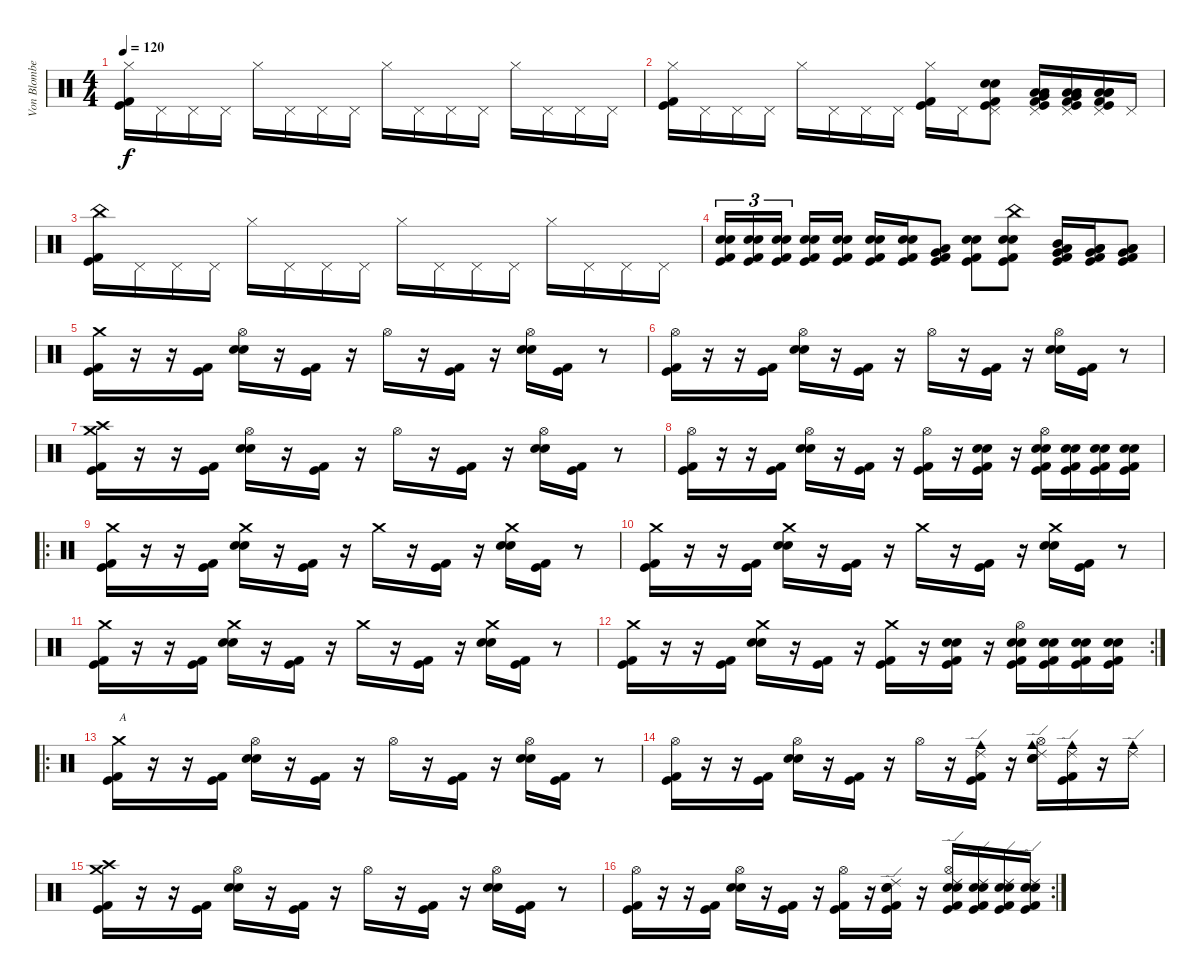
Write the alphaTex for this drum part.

\track ("Von Blomberg" "Von Blombe") {instrument percussion}
\staff {score}
\articulation defaults
\ts (4 4)
\tempo 120
\clef neutral
\ks c
("Hi-Hat (closed)" "Kick (hit)" "Kick (hit) 2").16{dy f} "Pedal Hi-Hat (hit)".16 "Pedal Hi-Hat (hit)".16 "Pedal Hi-Hat (hit)".16 "Hi-Hat (closed)".16 "Pedal Hi-Hat (hit)".16 "Pedal Hi-Hat (hit)".16 "Pedal Hi-Hat (hit)".16 "Hi-Hat (closed)".16 "Pedal Hi-Hat (hit)".16 "Pedal Hi-Hat (hit)".16 "Pedal Hi-Hat (hit)".16 "Hi-Hat (closed)".16 "Pedal Hi-Hat (hit)".16 "Pedal Hi-Hat (hit)".16 "Pedal Hi-Hat (hit)".16 |
("Hi-Hat (closed)" "Kick (hit)" "Kick (hit) 2").16 "Pedal Hi-Hat (hit)".16 "Pedal Hi-Hat (hit)".16 "Pedal Hi-Hat (hit)".16 "Hi-Hat (closed)".16 "Pedal Hi-Hat (hit)".16 "Pedal Hi-Hat (hit)".16 "Pedal Hi-Hat (hit)".16 ("Hi-Hat (closed)" "Kick (hit)" "Kick (hit) 2").16 "Pedal Hi-Hat (hit)".16 ("Pedal Hi-Hat (hit)" "Electric Snare (hit)" "Snare (hit) 2" "Kick (hit)" "Kick (hit) 2").8 ("Pedal Hi-Hat (hit)" "Low Tom (hit)" "Very Low Tom (hit)" "Low Floor Tom (hit)" "Kick (hit)" "Kick (hit) 2").16 ("Pedal Hi-Hat (hit)" "Very Low Tom (hit)" "Low Floor Tom (hit)" "Low Floor Tom (hit)" "Kick (hit)" "Kick (hit) 2").16 ("Pedal Hi-Hat (hit)" "Low Floor Tom (hit)" "Low Floor Tom (hit)" "Low Floor Tom (hit)" "Kick (hit)" "Kick (hit) 2").16 "Pedal Hi-Hat (hit)".16 |
("China (hit)" "Kick (hit)" "Kick (hit) 2").16 "Pedal Hi-Hat (hit)".16 "Pedal Hi-Hat (hit)".16 "Pedal Hi-Hat (hit)".16 "Hi-Hat (closed)".16 "Pedal Hi-Hat (hit)".16 "Pedal Hi-Hat (hit)".16 "Pedal Hi-Hat (hit)".16 "Hi-Hat (closed)".16 "Pedal Hi-Hat (hit)".16 "Pedal Hi-Hat (hit)".16 "Pedal Hi-Hat (hit)".16 "Hi-Hat (closed)".16 "Pedal Hi-Hat (hit)".16 "Pedal Hi-Hat (hit)".16 "Pedal Hi-Hat (hit)".16 |
("Snare (hit) 2" "Electric Snare (hit)" "Kick (hit)" "Kick (hit) 2").16{tu (3 2)} ("Snare (hit) 2" "Electric Snare (hit)" "Kick (hit)" "Kick (hit) 2").16{tu (3 2)} ("Snare (hit) 2" "Electric Snare (hit)" "Kick (hit)" "Kick (hit) 2").16{tu (3 2)} ("Snare (hit) 2" "Electric Snare (hit)" "Kick (hit)" "Kick (hit) 2").16 ("Snare (hit) 2" "Electric Snare (hit)" "Kick (hit)" "Kick (hit) 2").16 ("Snare (hit) 2" "Electric Snare (hit)" "Kick (hit)" "Kick (hit) 2").16 ("Snare (hit) 2" "Electric Snare (hit)" "Kick (hit)" "Kick (hit) 2").16 ("Low Tom (hit)" "Very Low Tom (hit)" "Kick (hit)" "Kick (hit) 2").8 ("Snare (hit) 2" "Electric Snare (hit)" "Kick (hit)" "Kick (hit) 2").8 ("China (hit)" "Electric Snare (hit)" "Snare (hit) 2" "Kick (hit)" "Kick (hit) 2").8 ("Kick (hit) 2" "Mid Tom (hit)" "Low Tom (hit)" "Very Low Tom (hit)" "Kick (hit)").16 ("Kick (hit) 2" "Low Tom (hit)" "Very Low Tom (hit)" "Low Floor Tom (hit)" "Kick (hit)").16 ("Kick (hit) 2" "Very Low Tom (hit)" "Low Floor Tom (hit)" "Low Floor Tom (hit)" "Kick (hit)").8 |
("Crash medium (hit)" "Kick (hit) 2" "Kick (hit)").16 r.16 r.16 ("Kick (hit)" "Kick (hit) 2").16 ("Hi-Hat (open)" "Electric Snare (hit)" "Snare (hit) 2").16 r.16 ("Kick (hit)" "Kick (hit) 2").16 r.16 "Hi-Hat (open)".16 r.16 ("Kick (hit)" "Kick (hit) 2").16 r.16 ("Hi-Hat (open)" "Snare (hit) 2" "Electric Snare (hit)").16 ("Kick (hit)" "Kick (hit) 2").16 r.8 |
("Hi-Hat (open)" "Kick (hit) 2" "Kick (hit)").16 r.16 r.16 ("Kick (hit)" "Kick (hit) 2").16 ("Hi-Hat (open)" "Electric Snare (hit)" "Snare (hit) 2").16 r.16 ("Kick (hit)" "Kick (hit) 2").16 r.16 "Hi-Hat (open)".16 r.16 ("Kick (hit)" "Kick (hit) 2").16 r.16 ("Hi-Hat (open)" "Snare (hit) 2" "Electric Snare (hit)").16 ("Kick (hit)" "Kick (hit) 2").16 r.8 |
("Crash high (hit)" "Crash medium (hit)" "Kick (hit) 2" "Kick (hit)").16 r.16 r.16 ("Kick (hit)" "Kick (hit) 2").16 ("Hi-Hat (open)" "Electric Snare (hit)" "Snare (hit) 2").16 r.16 ("Kick (hit)" "Kick (hit) 2").16 r.16 "Hi-Hat (open)".16 r.16 ("Kick (hit)" "Kick (hit) 2").16 r.16 ("Hi-Hat (open)" "Snare (hit) 2" "Electric Snare (hit)").16 ("Kick (hit)" "Kick (hit) 2").16 r.8 |
("Hi-Hat (open)" "Kick (hit) 2" "Kick (hit)").16 r.16 r.16 ("Kick (hit)" "Kick (hit) 2").16 ("Hi-Hat (open)" "Electric Snare (hit)" "Snare (hit) 2").16 r.16 ("Kick (hit)" "Kick (hit) 2").16 r.16 ("Hi-Hat (open)" "Kick (hit)" "Kick (hit) 2").16 r.16 ("Snare (hit) 2" "Electric Snare (hit)" "Kick (hit)" "Kick (hit) 2").16 r.16 ("Kick (hit)" "Hi-Hat (open)" "Electric Snare (hit)" "Snare (hit) 2" "Kick (hit) 2").16 ("Snare (hit) 2" "Electric Snare (hit)" "Kick (hit)" "Kick (hit) 2").16 ("Snare (hit) 2" "Electric Snare (hit)" "Kick (hit)" "Kick (hit) 2").16 ("Snare (hit) 2" "Electric Snare (hit)" "Kick (hit)" "Kick (hit) 2").16 |
\ro
("Crash medium (hit)" "Kick (hit) 2" "Kick (hit)").16 r.16 r.16 ("Kick (hit)" "Kick (hit) 2").16 ("Crash medium (hit)" "Electric Snare (hit)" "Snare (hit) 2").16 r.16 ("Kick (hit)" "Kick (hit) 2").16 r.16 "Crash medium (hit)".16 r.16 ("Kick (hit)" "Kick (hit) 2").16 r.16 ("Crash medium (hit)" "Snare (hit) 2" "Electric Snare (hit)").16 ("Kick (hit)" "Kick (hit) 2").16 r.8 |
("Crash medium (hit)" "Kick (hit) 2" "Kick (hit)").16 r.16 r.16 ("Kick (hit)" "Kick (hit) 2").16 ("Crash medium (hit)" "Electric Snare (hit)" "Snare (hit) 2").16 r.16 ("Kick (hit)" "Kick (hit) 2").16 r.16 "Crash medium (hit)".16 r.16 ("Kick (hit)" "Kick (hit) 2").16 r.16 ("Crash medium (hit)" "Snare (hit) 2" "Electric Snare (hit)").16 ("Kick (hit)" "Kick (hit) 2").16 r.8 |
("Crash medium (hit)" "Kick (hit) 2" "Kick (hit)").16 r.16 r.16 ("Kick (hit)" "Kick (hit) 2").16 ("Crash medium (hit)" "Electric Snare (hit)" "Snare (hit) 2").16 r.16 ("Kick (hit)" "Kick (hit) 2").16 r.16 "Crash medium (hit)".16 r.16 ("Kick (hit)" "Kick (hit) 2").16 r.16 ("Crash medium (hit)" "Snare (hit) 2" "Electric Snare (hit)").16 ("Kick (hit)" "Kick (hit) 2").16 r.8 |
\rc 2
("Crash medium (hit)" "Kick (hit) 2" "Kick (hit)").16 r.16 r.16 ("Kick (hit)" "Kick (hit) 2").16 ("Crash medium (hit)" "Electric Snare (hit)" "Snare (hit) 2").16 r.16 ("Kick (hit)" "Kick (hit) 2").16 r.16 ("Crash medium (hit)" "Kick (hit)" "Kick (hit) 2").16 r.16 ("Snare (hit) 2" "Electric Snare (hit)" "Kick (hit)" "Kick (hit) 2").16 r.16 ("Kick (hit)" "Hi-Hat (open)" "Electric Snare (hit)" "Snare (hit) 2" "Kick (hit) 2").16 ("Snare (hit) 2" "Electric Snare (hit)" "Kick (hit)" "Kick (hit) 2").16 ("Snare (hit) 2" "Electric Snare (hit)" "Kick (hit)" "Kick (hit) 2").16 ("Snare (hit) 2" "Electric Snare (hit)" "Kick (hit)" "Kick (hit) 2").16 |
\ro
("Crash medium (hit)" "Kick (hit) 2" "Kick (hit)").16{txt "A"} r.16 r.16 ("Kick (hit)" "Kick (hit) 2").16 ("Hi-Hat (open)" "Electric Snare (hit)" "Snare (hit) 2").16 r.16 ("Kick (hit)" "Kick (hit) 2").16 r.16 "Hi-Hat (open)".16 r.16 ("Kick (hit)" "Kick (hit) 2").16 r.16 ("Hi-Hat (open)" "Snare (hit) 2" "Electric Snare (hit)").16 ("Kick (hit)" "Kick (hit) 2").16 r.8 |
("Hi-Hat (open)" "Kick (hit) 2" "Kick (hit)").16 r.16 r.16 ("Kick (hit)" "Kick (hit) 2").16 ("Hi-Hat (open)" "Electric Snare (hit)" "Snare (hit) 2").16 r.16 ("Kick (hit)" "Kick (hit) 2").16 r.16 "Hi-Hat (open)".16 r.16 ("Cowbell medium (hit)" "Ride (edge) 2" "Kick (hit)" "Kick (hit) 2").16 r.16 ("Cowbell medium (hit)" "Ride (edge) 2" "Hi-Hat (open)" "Snare (hit) 2" "Electric Snare (hit)").16 ("Cowbell medium (hit)" "Ride (edge) 2" "Kick (hit)" "Kick (hit) 2").16 r.16 ("Cowbell medium (hit)" "Ride (edge) 2").16 |
("Crash high (hit)" "Crash medium (hit)" "Kick (hit) 2" "Kick (hit)").16 r.16 r.16 ("Kick (hit)" "Kick (hit) 2").16 ("Hi-Hat (open)" "Electric Snare (hit)" "Snare (hit) 2").16 r.16 ("Kick (hit)" "Kick (hit) 2").16 r.16 "Hi-Hat (open)".16 r.16 ("Kick (hit)" "Kick (hit) 2").16 r.16 ("Hi-Hat (open)" "Snare (hit) 2" "Electric Snare (hit)").16 ("Kick (hit)" "Kick (hit) 2").16 r.8 |
\rc 2
("Hi-Hat (open)" "Kick (hit) 2" "Kick (hit)").16 r.16 r.16 ("Kick (hit)" "Kick (hit) 2").16 ("Hi-Hat (open)" "Electric Snare (hit)" "Snare (hit) 2").16 r.16 ("Kick (hit)" "Kick (hit) 2").16 r.16 ("Hi-Hat (open)" "Kick (hit)" "Kick (hit) 2").16 r.16 ("Ride (edge) 2" "Snare (hit) 2" "Electric Snare (hit)" "Kick (hit)" "Kick (hit) 2").16 r.16 ("Ride (edge) 2" "Kick (hit)" "Hi-Hat (open)" "Electric Snare (hit)" "Snare (hit) 2" "Kick (hit) 2").16 ("Ride (edge) 2" "Snare (hit) 2" "Electric Snare (hit)" "Kick (hit)" "Kick (hit) 2").16 ("Ride (edge) 2" "Snare (hit) 2" "Electric Snare (hit)" "Kick (hit)" "Kick (hit) 2").16 ("Ride (edge) 2" "Snare (hit) 2" "Electric Snare (hit)" "Kick (hit)" "Kick (hit) 2").16
